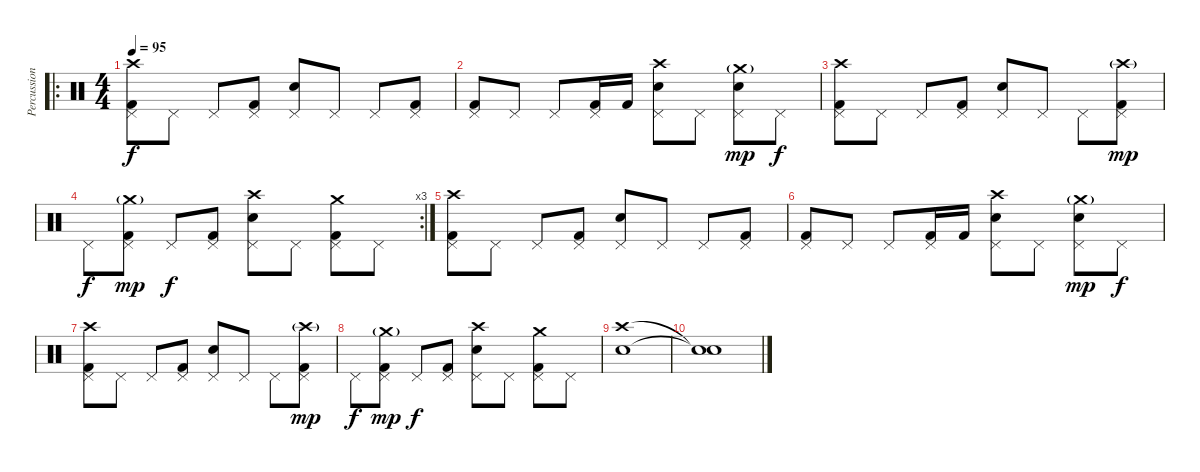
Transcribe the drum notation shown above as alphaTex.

\track ("Percussion" "Percussion") {instrument percussion}
\staff {score}
\articulation defaults
\ro
\ts (4 4)
\tempo 95
\clef neutral
\ks c
("Crash high (hit)" "Pedal Hi-Hat (hit)" "Kick (hit) 2").8{dy f} "Pedal Hi-Hat (hit)".8 "Pedal Hi-Hat (hit)".8 ("Pedal Hi-Hat (hit)" "Kick (hit) 2").8 ("Pedal Hi-Hat (hit)" "Snare (hit) 2").8 "Pedal Hi-Hat (hit)".8 "Pedal Hi-Hat (hit)".8 ("Pedal Hi-Hat (hit)" "Kick (hit) 2").8 |
("Pedal Hi-Hat (hit)" "Kick (hit) 2").8 "Pedal Hi-Hat (hit)".8 "Pedal Hi-Hat (hit)".8 ("Pedal Hi-Hat (hit)" "Kick (hit) 2").16 "Kick (hit) 2".16 ("Crash high (hit)" "Pedal Hi-Hat (hit)" "Snare (hit) 2").8 "Pedal Hi-Hat (hit)".8 ("Crash medium (hit)"{g} "Pedal Hi-Hat (hit)" "Snare (hit) 2").8{dy mp} "Pedal Hi-Hat (hit)".8{dy f} |
("Crash high (hit)" "Pedal Hi-Hat (hit)" "Kick (hit) 2").8 "Pedal Hi-Hat (hit)".8 "Pedal Hi-Hat (hit)".8 ("Pedal Hi-Hat (hit)" "Kick (hit) 2").8 ("Pedal Hi-Hat (hit)" "Snare (hit) 2").8 "Pedal Hi-Hat (hit)".8 "Pedal Hi-Hat (hit)".8 ("Crash high (hit)"{g} "Pedal Hi-Hat (hit)" "Kick (hit) 2").8{dy mp} |
\rc 3 "Pedal Hi-Hat (hit)".8{dy f}
("Crash medium (hit)"{g} "Pedal Hi-Hat (hit)" "Kick (hit) 2").8{dy mp} "Pedal Hi-Hat (hit)".8{dy f} ("Pedal Hi-Hat (hit)" "Kick (hit) 2").8 ("Crash high (hit)" "Pedal Hi-Hat (hit)" "Snare (hit) 2").8 "Pedal Hi-Hat (hit)".8 ("Crash medium (hit)" "Pedal Hi-Hat (hit)" "Kick (hit) 2").8 "Pedal Hi-Hat (hit)".8 |
("Crash high (hit)" "Pedal Hi-Hat (hit)" "Kick (hit) 2").8 "Pedal Hi-Hat (hit)".8 "Pedal Hi-Hat (hit)".8 ("Pedal Hi-Hat (hit)" "Kick (hit) 2").8 ("Pedal Hi-Hat (hit)" "Snare (hit) 2").8 "Pedal Hi-Hat (hit)".8 "Pedal Hi-Hat (hit)".8 ("Pedal Hi-Hat (hit)" "Kick (hit) 2").8 |
("Pedal Hi-Hat (hit)" "Kick (hit) 2").8 "Pedal Hi-Hat (hit)".8 "Pedal Hi-Hat (hit)".8 ("Pedal Hi-Hat (hit)" "Kick (hit) 2").16 "Kick (hit) 2".16 ("Crash high (hit)" "Pedal Hi-Hat (hit)" "Snare (hit) 2").8 "Pedal Hi-Hat (hit)".8 ("Crash medium (hit)"{g} "Pedal Hi-Hat (hit)" "Snare (hit) 2").8{dy mp} "Pedal Hi-Hat (hit)".8{dy f} |
("Crash high (hit)" "Pedal Hi-Hat (hit)" "Kick (hit) 2").8 "Pedal Hi-Hat (hit)".8 "Pedal Hi-Hat (hit)".8 ("Pedal Hi-Hat (hit)" "Kick (hit) 2").8 ("Pedal Hi-Hat (hit)" "Snare (hit) 2").8 "Pedal Hi-Hat (hit)".8 "Pedal Hi-Hat (hit)".8 ("Crash high (hit)"{g} "Pedal Hi-Hat (hit)" "Kick (hit) 2").8{dy mp} |
"Pedal Hi-Hat (hit)".8{dy f} ("Crash medium (hit)"{g} "Pedal Hi-Hat (hit)" "Kick (hit) 2").8{dy mp} "Pedal Hi-Hat (hit)".8{dy f} ("Pedal Hi-Hat (hit)" "Kick (hit) 2").8 ("Crash high (hit)" "Pedal Hi-Hat (hit)" "Snare (hit) 2").8 "Pedal Hi-Hat (hit)".8 ("Crash medium (hit)" "Pedal Hi-Hat (hit)" "Kick (hit) 2").8 "Pedal Hi-Hat (hit)".8 |
("Crash high (hit)" "Snare (hit) 2").1 |
("Snare (hit)"{t} "Snare (hit)"{t}).1
